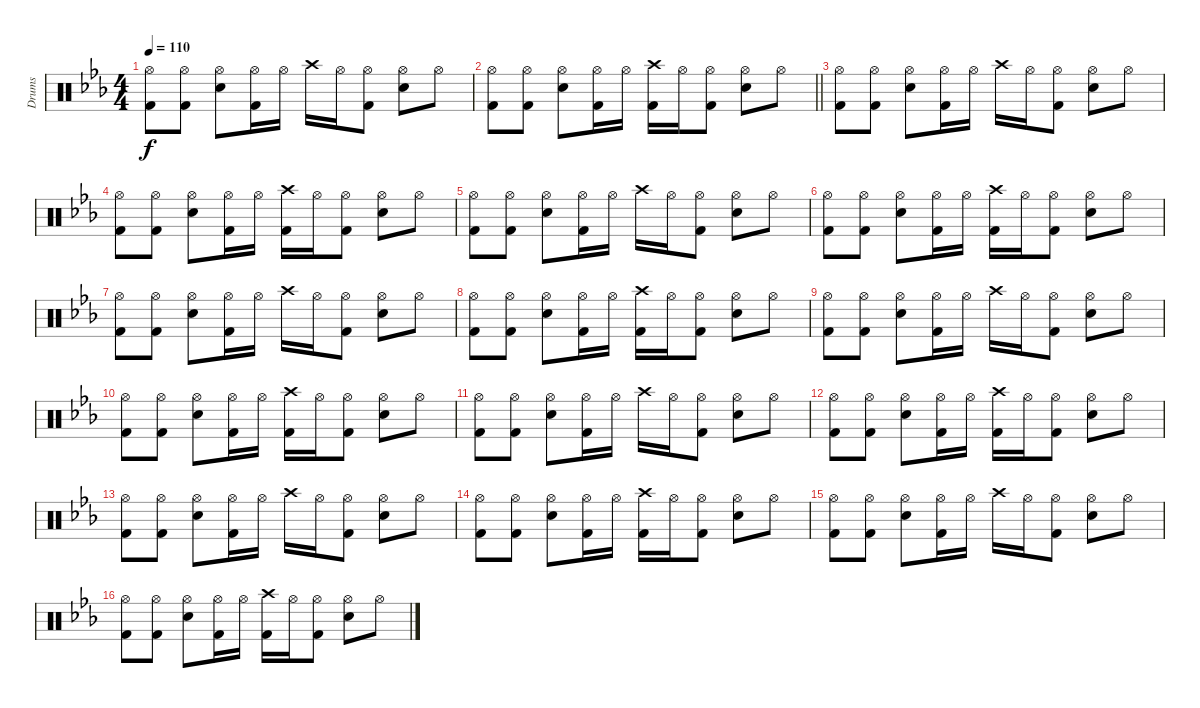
\track ("Drums" "Drums") {instrument percussion}
\staff {score}
\articulation defaults
\ts (4 4)
\tempo 110
\clef neutral
\ks eb
("Hi-Hat (open)" "Kick (hit) 2").8{dy f} ("Hi-Hat (open)" "Kick (hit) 2").8 ("Hi-Hat (open)" "Snare (hit) 2").8 ("Hi-Hat (open)" "Kick (hit) 2").16 "Hi-Hat (open)".16 "Crash high (hit)".16 "Hi-Hat (open)".16 ("Hi-Hat (open)" "Kick (hit) 2").8 ("Hi-Hat (open)" "Snare (hit) 2").8 "Hi-Hat (open)".8 |
\barLineRight lightlight
("Hi-Hat (open)" "Kick (hit) 2").8 ("Hi-Hat (open)" "Kick (hit) 2").8 ("Hi-Hat (open)" "Snare (hit) 2").8 ("Hi-Hat (open)" "Kick (hit) 2").16 "Hi-Hat (open)".16 ("Crash high (hit)" "Kick (hit) 2").16 "Hi-Hat (open)".16 ("Hi-Hat (open)" "Kick (hit) 2").8 ("Hi-Hat (open)" "Snare (hit) 2").8 "Hi-Hat (open)".8 |
("Hi-Hat (open)" "Kick (hit) 2").8 ("Hi-Hat (open)" "Kick (hit) 2").8 ("Hi-Hat (open)" "Snare (hit) 2").8 ("Hi-Hat (open)" "Kick (hit) 2").16 "Hi-Hat (open)".16 "Crash high (hit)".16 "Hi-Hat (open)".16 ("Hi-Hat (open)" "Kick (hit) 2").8 ("Hi-Hat (open)" "Snare (hit) 2").8 "Hi-Hat (open)".8 |
("Hi-Hat (open)" "Kick (hit) 2").8 ("Hi-Hat (open)" "Kick (hit) 2").8 ("Hi-Hat (open)" "Snare (hit) 2").8 ("Hi-Hat (open)" "Kick (hit) 2").16 "Hi-Hat (open)".16 ("Crash high (hit)" "Kick (hit) 2").16 "Hi-Hat (open)".16 ("Hi-Hat (open)" "Kick (hit) 2").8 ("Hi-Hat (open)" "Snare (hit) 2").8 "Hi-Hat (open)".8 |
("Hi-Hat (open)" "Kick (hit) 2").8 ("Hi-Hat (open)" "Kick (hit) 2").8 ("Hi-Hat (open)" "Snare (hit) 2").8 ("Hi-Hat (open)" "Kick (hit) 2").16 "Hi-Hat (open)".16 "Crash high (hit)".16 "Hi-Hat (open)".16 ("Hi-Hat (open)" "Kick (hit) 2").8 ("Hi-Hat (open)" "Snare (hit) 2").8 "Hi-Hat (open)".8 |
("Hi-Hat (open)" "Kick (hit) 2").8 ("Hi-Hat (open)" "Kick (hit) 2").8 ("Hi-Hat (open)" "Snare (hit) 2").8 ("Hi-Hat (open)" "Kick (hit) 2").16 "Hi-Hat (open)".16 ("Crash high (hit)" "Kick (hit) 2").16 "Hi-Hat (open)".16 ("Hi-Hat (open)" "Kick (hit) 2").8 ("Hi-Hat (open)" "Snare (hit) 2").8 "Hi-Hat (open)".8 |
("Hi-Hat (open)" "Kick (hit) 2").8 ("Hi-Hat (open)" "Kick (hit) 2").8 ("Hi-Hat (open)" "Snare (hit) 2").8 ("Hi-Hat (open)" "Kick (hit) 2").16 "Hi-Hat (open)".16 "Crash high (hit)".16 "Hi-Hat (open)".16 ("Hi-Hat (open)" "Kick (hit) 2").8 ("Hi-Hat (open)" "Snare (hit) 2").8 "Hi-Hat (open)".8 |
("Hi-Hat (open)" "Kick (hit) 2").8 ("Hi-Hat (open)" "Kick (hit) 2").8 ("Hi-Hat (open)" "Snare (hit) 2").8 ("Hi-Hat (open)" "Kick (hit) 2").16 "Hi-Hat (open)".16 ("Crash high (hit)" "Kick (hit) 2").16 "Hi-Hat (open)".16 ("Hi-Hat (open)" "Kick (hit) 2").8 ("Hi-Hat (open)" "Snare (hit) 2").8 "Hi-Hat (open)".8 |
("Hi-Hat (open)" "Kick (hit) 2").8 ("Hi-Hat (open)" "Kick (hit) 2").8 ("Hi-Hat (open)" "Snare (hit) 2").8 ("Hi-Hat (open)" "Kick (hit) 2").16 "Hi-Hat (open)".16 "Crash high (hit)".16 "Hi-Hat (open)".16 ("Hi-Hat (open)" "Kick (hit) 2").8 ("Hi-Hat (open)" "Snare (hit) 2").8 "Hi-Hat (open)".8 |
("Hi-Hat (open)" "Kick (hit) 2").8 ("Hi-Hat (open)" "Kick (hit) 2").8 ("Hi-Hat (open)" "Snare (hit) 2").8 ("Hi-Hat (open)" "Kick (hit) 2").16 "Hi-Hat (open)".16 ("Crash high (hit)" "Kick (hit) 2").16 "Hi-Hat (open)".16 ("Hi-Hat (open)" "Kick (hit) 2").8 ("Hi-Hat (open)" "Snare (hit) 2").8 "Hi-Hat (open)".8 |
("Hi-Hat (open)" "Kick (hit) 2").8 ("Hi-Hat (open)" "Kick (hit) 2").8 ("Hi-Hat (open)" "Snare (hit) 2").8 ("Hi-Hat (open)" "Kick (hit) 2").16 "Hi-Hat (open)".16 "Crash high (hit)".16 "Hi-Hat (open)".16 ("Hi-Hat (open)" "Kick (hit) 2").8 ("Hi-Hat (open)" "Snare (hit) 2").8 "Hi-Hat (open)".8 |
("Hi-Hat (open)" "Kick (hit) 2").8 ("Hi-Hat (open)" "Kick (hit) 2").8 ("Hi-Hat (open)" "Snare (hit) 2").8 ("Hi-Hat (open)" "Kick (hit) 2").16 "Hi-Hat (open)".16 ("Crash high (hit)" "Kick (hit) 2").16 "Hi-Hat (open)".16 ("Hi-Hat (open)" "Kick (hit) 2").8 ("Hi-Hat (open)" "Snare (hit) 2").8 "Hi-Hat (open)".8 |
("Hi-Hat (open)" "Kick (hit) 2").8 ("Hi-Hat (open)" "Kick (hit) 2").8 ("Hi-Hat (open)" "Snare (hit) 2").8 ("Hi-Hat (open)" "Kick (hit) 2").16 "Hi-Hat (open)".16 "Crash high (hit)".16 "Hi-Hat (open)".16 ("Hi-Hat (open)" "Kick (hit) 2").8 ("Hi-Hat (open)" "Snare (hit) 2").8 "Hi-Hat (open)".8 |
("Hi-Hat (open)" "Kick (hit) 2").8 ("Hi-Hat (open)" "Kick (hit) 2").8 ("Hi-Hat (open)" "Snare (hit) 2").8 ("Hi-Hat (open)" "Kick (hit) 2").16 "Hi-Hat (open)".16 ("Crash high (hit)" "Kick (hit) 2").16 "Hi-Hat (open)".16 ("Hi-Hat (open)" "Kick (hit) 2").8 ("Hi-Hat (open)" "Snare (hit) 2").8 "Hi-Hat (open)".8 |
("Hi-Hat (open)" "Kick (hit) 2").8 ("Hi-Hat (open)" "Kick (hit) 2").8 ("Hi-Hat (open)" "Snare (hit) 2").8 ("Hi-Hat (open)" "Kick (hit) 2").16 "Hi-Hat (open)".16 "Crash high (hit)".16 "Hi-Hat (open)".16 ("Hi-Hat (open)" "Kick (hit) 2").8 ("Hi-Hat (open)" "Snare (hit) 2").8 "Hi-Hat (open)".8 |
("Hi-Hat (open)" "Kick (hit) 2").8 ("Hi-Hat (open)" "Kick (hit) 2").8 ("Hi-Hat (open)" "Snare (hit) 2").8 ("Hi-Hat (open)" "Kick (hit) 2").16 "Hi-Hat (open)".16 ("Crash high (hit)" "Kick (hit) 2").16 "Hi-Hat (open)".16 ("Hi-Hat (open)" "Kick (hit) 2").8 ("Hi-Hat (open)" "Snare (hit) 2").8 "Hi-Hat (open)".8
